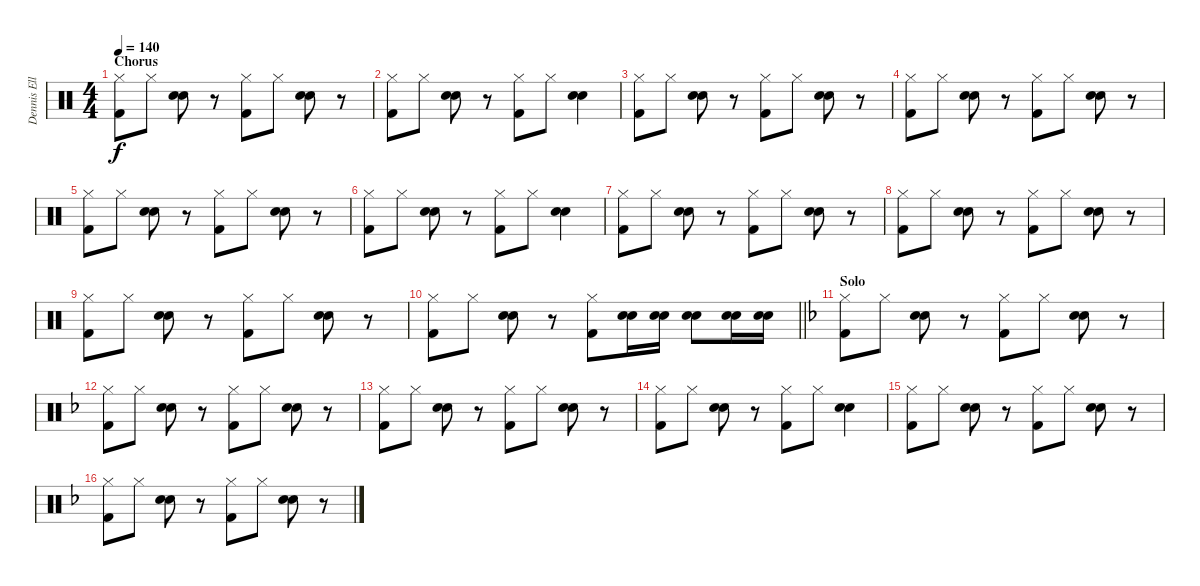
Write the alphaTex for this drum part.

\track ("Dennis Elliott (Drums)" "Dennis Ell") {instrument percussion}
\staff {score}
\articulation defaults
\ts (4 4)
\section ("" "Chorus")
\tempo 140
\clef neutral
\ks c
("Hi-Hat (closed)" "Kick (hit) 2").8{dy f} "Hi-Hat (closed)".8 ("Electric Snare (hit)" "Snare (hit) 2").8 r.8 ("Hi-Hat (closed)" "Kick (hit) 2").8 "Hi-Hat (closed)".8 ("Electric Snare (hit)" "Snare (hit) 2").8 r.8 |
("Hi-Hat (closed)" "Kick (hit) 2").8 "Hi-Hat (closed)".8 ("Electric Snare (hit)" "Snare (hit) 2").8 r.8 ("Hi-Hat (closed)" "Kick (hit) 2").8 "Hi-Hat (closed)".8 ("Electric Snare (hit)" "Snare (hit) 2").4 |
("Hi-Hat (closed)" "Kick (hit) 2").8 "Hi-Hat (closed)".8 ("Electric Snare (hit)" "Snare (hit) 2").8 r.8 ("Hi-Hat (closed)" "Kick (hit) 2").8 "Hi-Hat (closed)".8 ("Electric Snare (hit)" "Snare (hit) 2").8 r.8 |
("Hi-Hat (closed)" "Kick (hit) 2").8 "Hi-Hat (closed)".8 ("Electric Snare (hit)" "Snare (hit) 2").8 r.8 ("Hi-Hat (closed)" "Kick (hit) 2").8 "Hi-Hat (closed)".8 ("Electric Snare (hit)" "Snare (hit) 2").8 r.8 |
("Hi-Hat (closed)" "Kick (hit) 2").8 "Hi-Hat (closed)".8 ("Electric Snare (hit)" "Snare (hit) 2").8 r.8 ("Hi-Hat (closed)" "Kick (hit) 2").8 "Hi-Hat (closed)".8 ("Electric Snare (hit)" "Snare (hit) 2").8 r.8 |
("Hi-Hat (closed)" "Kick (hit) 2").8 "Hi-Hat (closed)".8 ("Electric Snare (hit)" "Snare (hit) 2").8 r.8 ("Hi-Hat (closed)" "Kick (hit) 2").8 "Hi-Hat (closed)".8 ("Electric Snare (hit)" "Snare (hit) 2").4 |
("Hi-Hat (closed)" "Kick (hit) 2").8 "Hi-Hat (closed)".8 ("Electric Snare (hit)" "Snare (hit) 2").8 r.8 ("Hi-Hat (closed)" "Kick (hit) 2").8 "Hi-Hat (closed)".8 ("Electric Snare (hit)" "Snare (hit) 2").8 r.8 |
("Hi-Hat (closed)" "Kick (hit) 2").8 "Hi-Hat (closed)".8 ("Electric Snare (hit)" "Snare (hit) 2").8 r.8 ("Hi-Hat (closed)" "Kick (hit) 2").8 "Hi-Hat (closed)".8 ("Electric Snare (hit)" "Snare (hit) 2").8 r.8 |
("Hi-Hat (closed)" "Kick (hit) 2").8 "Hi-Hat (closed)".8 ("Electric Snare (hit)" "Snare (hit) 2").8 r.8 ("Hi-Hat (closed)" "Kick (hit) 2").8 "Hi-Hat (closed)".8 ("Electric Snare (hit)" "Snare (hit) 2").8 r.8 |
\barLineRight lightlight
("Hi-Hat (closed)" "Kick (hit) 2").8 "Hi-Hat (closed)".8 ("Electric Snare (hit)" "Snare (hit) 2").8 r.8 ("Hi-Hat (closed)" "Kick (hit) 2").8 ("Electric Snare (hit)" "Snare (hit) 2").16 ("Electric Snare (hit)" "Snare (hit) 2").16 ("Electric Snare (hit)" "Snare (hit) 2").8 ("Electric Snare (hit)" "Snare (hit) 2").16 ("Electric Snare (hit)" "Snare (hit) 2").16 |
\section ("" "Solo")
\ks f
("Hi-Hat (closed)" "Kick (hit) 2").8 "Hi-Hat (closed)".8 ("Electric Snare (hit)" "Snare (hit) 2").8 r.8 ("Hi-Hat (closed)" "Kick (hit) 2").8 "Hi-Hat (closed)".8 ("Electric Snare (hit)" "Snare (hit) 2").8 r.8 |
("Hi-Hat (closed)" "Kick (hit) 2").8 "Hi-Hat (closed)".8 ("Electric Snare (hit)" "Snare (hit) 2").8 r.8 ("Hi-Hat (closed)" "Kick (hit) 2").8 "Hi-Hat (closed)".8 ("Electric Snare (hit)" "Snare (hit) 2").8 r.8 |
("Hi-Hat (closed)" "Kick (hit) 2").8 "Hi-Hat (closed)".8 ("Electric Snare (hit)" "Snare (hit) 2").8 r.8 ("Hi-Hat (closed)" "Kick (hit) 2").8 "Hi-Hat (closed)".8 ("Electric Snare (hit)" "Snare (hit) 2").8 r.8 |
("Hi-Hat (closed)" "Kick (hit) 2").8 "Hi-Hat (closed)".8 ("Electric Snare (hit)" "Snare (hit) 2").8 r.8 ("Hi-Hat (closed)" "Kick (hit) 2").8 "Hi-Hat (closed)".8 ("Electric Snare (hit)" "Snare (hit) 2").4 |
("Hi-Hat (closed)" "Kick (hit) 2").8 "Hi-Hat (closed)".8 ("Electric Snare (hit)" "Snare (hit) 2").8 r.8 ("Hi-Hat (closed)" "Kick (hit) 2").8 "Hi-Hat (closed)".8 ("Electric Snare (hit)" "Snare (hit) 2").8 r.8 |
("Hi-Hat (closed)" "Kick (hit) 2").8 "Hi-Hat (closed)".8 ("Electric Snare (hit)" "Snare (hit) 2").8 r.8 ("Hi-Hat (closed)" "Kick (hit) 2").8 "Hi-Hat (closed)".8 ("Electric Snare (hit)" "Snare (hit) 2").8 r.8
